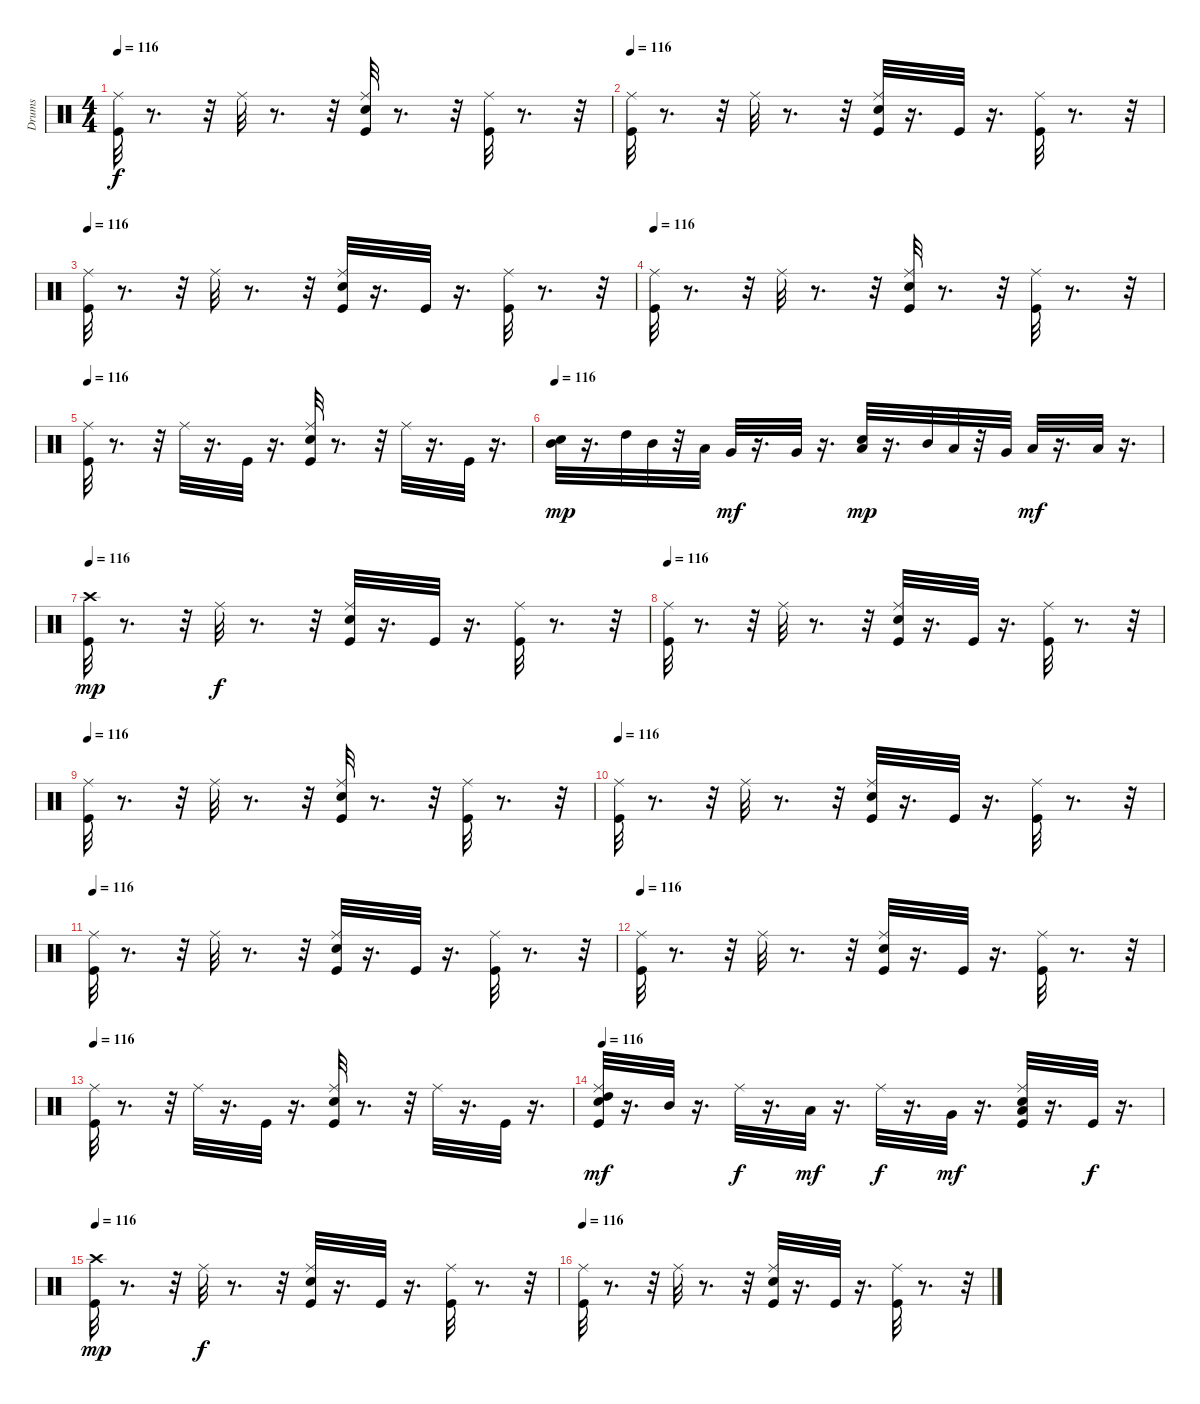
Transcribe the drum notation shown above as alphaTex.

\track ("Drums" "Drums") {instrument percussion}
\staff {score}
\articulation defaults
\ts (4 4)
\tempo 116
\clef neutral
\ks c
("Kick (hit)" "Ride (middle)").32{dy f} r.8{d} r.32 "Ride (middle)".32 r.8{d} r.32 ("Kick (hit)" "Snare (hit) 2" "Ride (middle)").32 r.8{d} r.32 ("Kick (hit)" "Ride (middle)").32 r.8{d} r.32 |
\tempo 116
("Kick (hit)" "Ride (middle)").32 r.8{d} r.32 "Ride (middle)".32 r.8{d} r.32 ("Kick (hit)" "Snare (hit) 2" "Ride (middle)").32 r.16{d} "Kick (hit)".32 r.16{d} ("Kick (hit)" "Ride (middle)").32 r.8{d} r.32 |
\tempo 116
("Kick (hit)" "Ride (middle)").32 r.8{d} r.32 "Ride (middle)".32 r.8{d} r.32 ("Kick (hit)" "Snare (hit) 2" "Ride (middle)").32 r.16{d} "Kick (hit)".32 r.16{d} ("Kick (hit)" "Ride (middle)").32 r.8{d} r.32 |
\tempo 116
("Kick (hit)" "Ride (middle)").32 r.8{d} r.32 "Ride (middle)".32 r.8{d} r.32 ("Kick (hit)" "Snare (hit) 2" "Ride (middle)").32 r.8{d} r.32 ("Kick (hit)" "Ride (middle)").32 r.8{d} r.32 |
\tempo 116
("Kick (hit)" "Ride (middle)").32 r.8{d} r.32 "Ride (middle)".32 r.16{d} "Kick (hit)".32 r.16{d} ("Kick (hit)" "Snare (hit) 2" "Ride (middle)").32 r.8{d} r.32 "Ride (middle)".32 r.16{d} "Kick (hit)".32 r.16{d} |
\tempo 116
("Snare (hit) 2" "Mid Tom (hit)").32{dy mp} r.16{d} "High Tom (hit)".32 "Mid Tom (hit)".32 r.32 "Low Tom (hit)".32 "Very Low Tom (hit)".32{dy mf} r.16{d} "Very Low Tom (hit)".32 r.16{d} ("Snare (hit) 2" "Low Tom (hit)").32{dy mp} r.16{d} "Mid Tom (hit)".32 "Low Tom (hit)".32 r.32 "Very Low Tom (hit)".32 "Low Floor Tom (hit)".32{dy mf} r.16{d} "Low Floor Tom (hit)".32 r.16{d} |
\tempo 116
("Kick (hit)" "Crash high (hit)").32{dy mp} r.8{d} r.32 "Ride (middle)".32{dy f} r.8{d} r.32 ("Kick (hit)" "Snare (hit) 2" "Ride (middle)").32 r.16{d} "Kick (hit)".32 r.16{d} ("Kick (hit)" "Ride (middle)").32 r.8{d} r.32 |
\tempo 116
("Kick (hit)" "Ride (middle)").32 r.8{d} r.32 "Ride (middle)".32 r.8{d} r.32 ("Kick (hit)" "Snare (hit) 2" "Ride (middle)").32 r.16{d} "Kick (hit)".32 r.16{d} ("Kick (hit)" "Ride (middle)").32 r.8{d} r.32 |
\tempo 116
("Kick (hit)" "Ride (middle)").32 r.8{d} r.32 "Ride (middle)".32 r.8{d} r.32 ("Kick (hit)" "Snare (hit) 2" "Ride (middle)").32 r.8{d} r.32 ("Kick (hit)" "Ride (middle)").32 r.8{d} r.32 |
\tempo 116
("Kick (hit)" "Ride (middle)").32 r.8{d} r.32 "Ride (middle)".32 r.8{d} r.32 ("Kick (hit)" "Snare (hit) 2" "Ride (middle)").32 r.16{d} "Kick (hit)".32 r.16{d} ("Kick (hit)" "Ride (middle)").32 r.8{d} r.32 |
\tempo 116
("Kick (hit)" "Ride (middle)").32 r.8{d} r.32 "Ride (middle)".32 r.8{d} r.32 ("Kick (hit)" "Snare (hit) 2" "Ride (middle)").32 r.16{d} "Kick (hit)".32 r.16{d} ("Kick (hit)" "Ride (middle)").32 r.8{d} r.32 |
\tempo 116
("Kick (hit)" "Ride (middle)").32 r.8{d} r.32 "Ride (middle)".32 r.8{d} r.32 ("Kick (hit)" "Snare (hit) 2" "Ride (middle)").32 r.16{d} "Kick (hit)".32 r.16{d} ("Kick (hit)" "Ride (middle)").32 r.8{d} r.32 |
\tempo 116
("Kick (hit)" "Ride (middle)").32 r.8{d} r.32 "Ride (middle)".32 r.16{d} "Kick (hit)".32 r.16{d} ("Kick (hit)" "Snare (hit) 2" "Ride (middle)").32 r.8{d} r.32 "Ride (middle)".32 r.16{d} "Kick (hit)".32 r.16{d} |
\tempo 116
("Kick (hit)" "Snare (hit) 2" "High Tom (hit)" "Ride (middle)").32{dy mf} r.16{d} "Mid Tom (hit)".32 r.16{d} "Ride (middle)".32{dy f} r.16{d} "Low Tom (hit)".32{dy mf} r.16{d} "Ride (middle)".32{dy f} r.16{d} "Very Low Tom (hit)".32{dy mf} r.16{d} ("Kick (hit)" "Snare (hit) 2" "Low Floor Tom (hit)" "Ride (middle)").32 r.16{d} "Kick (hit)".32{dy f} r.16{d} |
\tempo 116
("Kick (hit)" "Crash high (hit)").32{dy mp} r.8{d} r.32 "Ride (middle)".32{dy f} r.8{d} r.32 ("Kick (hit)" "Snare (hit) 2" "Ride (middle)").32 r.16{d} "Kick (hit)".32 r.16{d} ("Kick (hit)" "Ride (middle)").32 r.8{d} r.32 |
\tempo 116
("Kick (hit)" "Ride (middle)").32 r.8{d} r.32 "Ride (middle)".32 r.8{d} r.32 ("Kick (hit)" "Snare (hit) 2" "Ride (middle)").32 r.16{d} "Kick (hit)".32 r.16{d} ("Kick (hit)" "Ride (middle)").32 r.8{d} r.32
